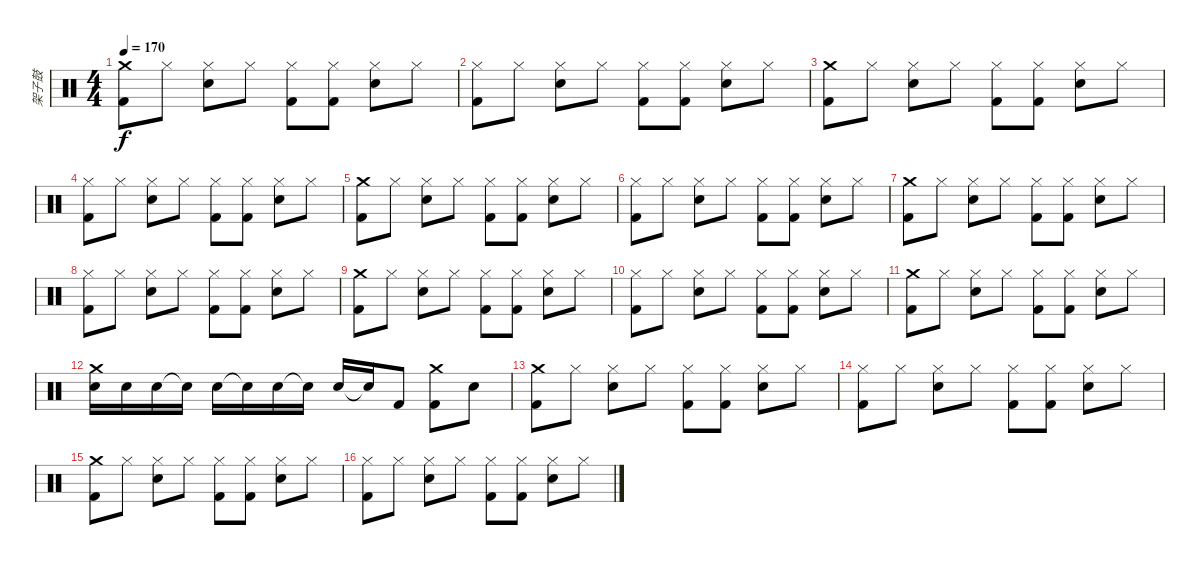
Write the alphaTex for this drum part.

\track ("架子鼓" "架子鼓") {instrument percussion}
\staff {score}
\articulation defaults
\ts (4 4)
\tempo 170
\clef neutral
\ks c
("Crash medium (hit)" "Kick (hit) 2").8{dy f} "Hi-Hat (closed)".8 ("Hi-Hat (closed)" "Snare (hit) 2").8 "Hi-Hat (closed)".8 ("Hi-Hat (closed)" "Kick (hit) 2").8 ("Hi-Hat (closed)" "Kick (hit) 2").8 ("Hi-Hat (closed)" "Snare (hit) 2").8 "Hi-Hat (closed)".8 |
("Hi-Hat (closed)" "Kick (hit) 2").8 "Hi-Hat (closed)".8 ("Hi-Hat (closed)" "Snare (hit) 2").8 "Hi-Hat (closed)".8 ("Hi-Hat (closed)" "Kick (hit) 2").8 ("Hi-Hat (closed)" "Kick (hit) 2").8 ("Hi-Hat (closed)" "Snare (hit) 2").8 "Hi-Hat (closed)".8 |
("Crash medium (hit)" "Kick (hit) 2").8 "Hi-Hat (closed)".8 ("Hi-Hat (closed)" "Snare (hit) 2").8 "Hi-Hat (closed)".8 ("Hi-Hat (closed)" "Kick (hit) 2").8 ("Hi-Hat (closed)" "Kick (hit) 2").8 ("Hi-Hat (closed)" "Snare (hit) 2").8 "Hi-Hat (closed)".8 |
("Hi-Hat (closed)" "Kick (hit) 2").8 "Hi-Hat (closed)".8 ("Hi-Hat (closed)" "Snare (hit) 2").8 "Hi-Hat (closed)".8 ("Hi-Hat (closed)" "Kick (hit) 2").8 ("Hi-Hat (closed)" "Kick (hit) 2").8 ("Hi-Hat (closed)" "Snare (hit) 2").8 "Hi-Hat (closed)".8 |
("Crash medium (hit)" "Kick (hit) 2").8 "Hi-Hat (closed)".8 ("Hi-Hat (closed)" "Snare (hit) 2").8 "Hi-Hat (closed)".8 ("Hi-Hat (closed)" "Kick (hit) 2").8 ("Hi-Hat (closed)" "Kick (hit) 2").8 ("Hi-Hat (closed)" "Snare (hit) 2").8 "Hi-Hat (closed)".8 |
("Hi-Hat (closed)" "Kick (hit) 2").8 "Hi-Hat (closed)".8 ("Hi-Hat (closed)" "Snare (hit) 2").8 "Hi-Hat (closed)".8 ("Hi-Hat (closed)" "Kick (hit) 2").8 ("Hi-Hat (closed)" "Kick (hit) 2").8 ("Hi-Hat (closed)" "Snare (hit) 2").8 "Hi-Hat (closed)".8 |
("Crash medium (hit)" "Kick (hit) 2").8 "Hi-Hat (closed)".8 ("Hi-Hat (closed)" "Snare (hit) 2").8 "Hi-Hat (closed)".8 ("Hi-Hat (closed)" "Kick (hit) 2").8 ("Hi-Hat (closed)" "Kick (hit) 2").8 ("Hi-Hat (closed)" "Snare (hit) 2").8 "Hi-Hat (closed)".8 |
("Hi-Hat (closed)" "Kick (hit) 2").8 "Hi-Hat (closed)".8 ("Hi-Hat (closed)" "Snare (hit) 2").8 "Hi-Hat (closed)".8 ("Hi-Hat (closed)" "Kick (hit) 2").8 ("Hi-Hat (closed)" "Kick (hit) 2").8 ("Hi-Hat (closed)" "Snare (hit) 2").8 "Hi-Hat (closed)".8 |
("Crash medium (hit)" "Kick (hit) 2").8 "Hi-Hat (closed)".8 ("Hi-Hat (closed)" "Snare (hit) 2").8 "Hi-Hat (closed)".8 ("Hi-Hat (closed)" "Kick (hit) 2").8 ("Hi-Hat (closed)" "Kick (hit) 2").8 ("Hi-Hat (closed)" "Snare (hit) 2").8 "Hi-Hat (closed)".8 |
("Hi-Hat (closed)" "Kick (hit) 2").8 "Hi-Hat (closed)".8 ("Hi-Hat (closed)" "Snare (hit) 2").8 "Hi-Hat (closed)".8 ("Hi-Hat (closed)" "Kick (hit) 2").8 ("Hi-Hat (closed)" "Kick (hit) 2").8 ("Hi-Hat (closed)" "Snare (hit) 2").8 "Hi-Hat (closed)".8 |
("Crash medium (hit)" "Kick (hit) 2").8 "Hi-Hat (closed)".8 ("Hi-Hat (closed)" "Snare (hit) 2").8 "Hi-Hat (closed)".8 ("Hi-Hat (closed)" "Kick (hit) 2").8 ("Hi-Hat (closed)" "Kick (hit) 2").8 ("Hi-Hat (closed)" "Snare (hit) 2").8 "Hi-Hat (closed)".8 |
("Crash medium (hit)" "Snare (hit) 2").16 "Snare (hit) 2".16 "Snare (hit) 2".16 "Snare (hit)"{t}.16 "Snare (hit) 2".16 "Snare (hit)"{t}.16 "Snare (hit) 2".16 "Snare (hit)"{t}.16 "Snare (hit) 2".16 "Snare (hit)"{t}.16 "Kick (hit) 2".8 ("Crash medium (hit)" "Kick (hit) 2").8 "Snare (hit) 2".8 |
("Crash medium (hit)" "Kick (hit) 2").8 "Hi-Hat (closed)".8 ("Hi-Hat (closed)" "Snare (hit) 2").8 "Hi-Hat (closed)".8 ("Hi-Hat (closed)" "Kick (hit) 2").8 ("Hi-Hat (closed)" "Kick (hit) 2").8 ("Hi-Hat (closed)" "Snare (hit) 2").8 "Hi-Hat (closed)".8 |
("Hi-Hat (closed)" "Kick (hit) 2").8 "Hi-Hat (closed)".8 ("Hi-Hat (closed)" "Snare (hit) 2").8 "Hi-Hat (closed)".8 ("Hi-Hat (closed)" "Kick (hit) 2").8 ("Hi-Hat (closed)" "Kick (hit) 2").8 ("Hi-Hat (closed)" "Snare (hit) 2").8 "Hi-Hat (closed)".8 |
("Crash medium (hit)" "Kick (hit) 2").8 "Hi-Hat (closed)".8 ("Hi-Hat (closed)" "Snare (hit) 2").8 "Hi-Hat (closed)".8 ("Hi-Hat (closed)" "Kick (hit) 2").8 ("Hi-Hat (closed)" "Kick (hit) 2").8 ("Hi-Hat (closed)" "Snare (hit) 2").8 "Hi-Hat (closed)".8 |
("Hi-Hat (closed)" "Kick (hit) 2").8 "Hi-Hat (closed)".8 ("Hi-Hat (closed)" "Snare (hit) 2").8 "Hi-Hat (closed)".8 ("Hi-Hat (closed)" "Kick (hit) 2").8 ("Hi-Hat (closed)" "Kick (hit) 2").8 ("Hi-Hat (closed)" "Snare (hit) 2").8 "Hi-Hat (closed)".8
